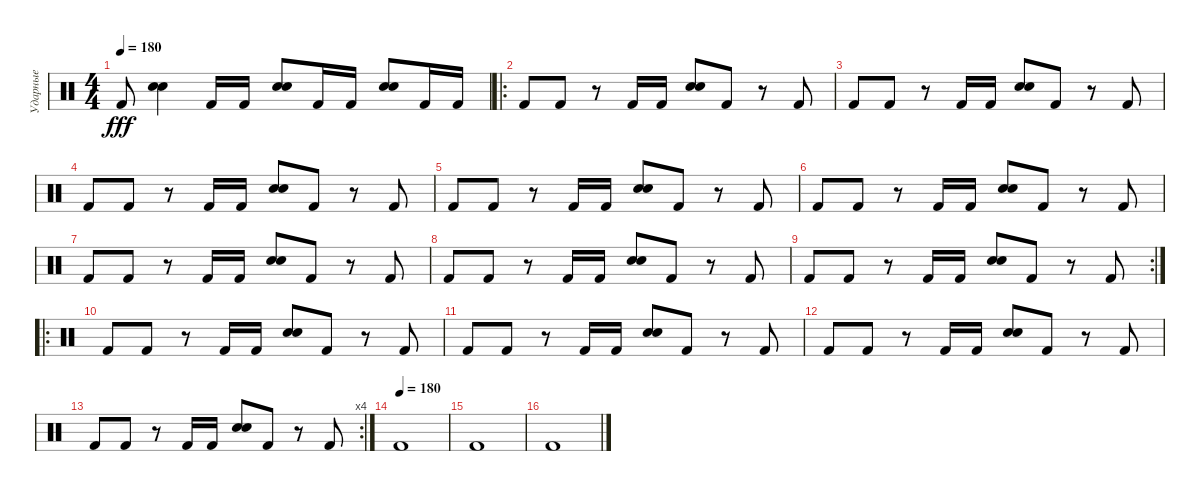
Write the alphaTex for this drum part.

\track ("Ударные" "Ударные") {instrument percussion}
\staff {score}
\articulation defaults
\ts (4 4)
\tempo 180
\clef neutral
\ks c "Kick (hit) 2".8{dy fff}
("Snare (hit) 2" "Electric Snare (hit)").4 "Kick (hit) 2".16 "Kick (hit) 2".16 ("Snare (hit) 2" "Electric Snare (hit)").8 "Kick (hit) 2".16 "Kick (hit) 2".16 ("Snare (hit) 2" "Electric Snare (hit)").8 "Kick (hit) 2".16 "Kick (hit) 2".16 |
\ro "Kick (hit) 2".8 "Kick (hit) 2".8
r.8 "Kick (hit) 2".16 "Kick (hit) 2".16 ("Snare (hit) 2" "Electric Snare (hit)").8 "Kick (hit) 2".8 r.8 "Kick (hit) 2".8 |
"Kick (hit) 2".8 "Kick (hit) 2".8 r.8 "Kick (hit) 2".16 "Kick (hit) 2".16 ("Snare (hit) 2" "Electric Snare (hit)").8 "Kick (hit) 2".8 r.8 "Kick (hit) 2".8 |
"Kick (hit) 2".8 "Kick (hit) 2".8 r.8 "Kick (hit) 2".16 "Kick (hit) 2".16 ("Snare (hit) 2" "Electric Snare (hit)").8 "Kick (hit) 2".8 r.8 "Kick (hit) 2".8 |
"Kick (hit) 2".8 "Kick (hit) 2".8 r.8 "Kick (hit) 2".16 "Kick (hit) 2".16 ("Snare (hit) 2" "Electric Snare (hit)").8 "Kick (hit) 2".8 r.8 "Kick (hit) 2".8 |
"Kick (hit) 2".8 "Kick (hit) 2".8 r.8 "Kick (hit) 2".16 "Kick (hit) 2".16 ("Snare (hit) 2" "Electric Snare (hit)").8 "Kick (hit) 2".8 r.8 "Kick (hit) 2".8 |
"Kick (hit) 2".8 "Kick (hit) 2".8 r.8 "Kick (hit) 2".16 "Kick (hit) 2".16 ("Snare (hit) 2" "Electric Snare (hit)").8 "Kick (hit) 2".8 r.8 "Kick (hit) 2".8 |
"Kick (hit) 2".8 "Kick (hit) 2".8 r.8 "Kick (hit) 2".16 "Kick (hit) 2".16 ("Snare (hit) 2" "Electric Snare (hit)").8 "Kick (hit) 2".8 r.8 "Kick (hit) 2".8 |
\rc 2 "Kick (hit) 2".8 "Kick (hit) 2".8
r.8 "Kick (hit) 2".16 "Kick (hit) 2".16 ("Snare (hit) 2" "Electric Snare (hit)").8 "Kick (hit) 2".8 r.8 "Kick (hit) 2".8 |
\ro "Kick (hit) 2".8 "Kick (hit) 2".8
r.8 "Kick (hit) 2".16 "Kick (hit) 2".16 ("Snare (hit) 2" "Electric Snare (hit)").8 "Kick (hit) 2".8 r.8 "Kick (hit) 2".8 |
"Kick (hit) 2".8 "Kick (hit) 2".8 r.8 "Kick (hit) 2".16 "Kick (hit) 2".16 ("Snare (hit) 2" "Electric Snare (hit)").8 "Kick (hit) 2".8 r.8 "Kick (hit) 2".8 |
"Kick (hit) 2".8 "Kick (hit) 2".8 r.8 "Kick (hit) 2".16 "Kick (hit) 2".16 ("Snare (hit) 2" "Electric Snare (hit)").8 "Kick (hit) 2".8 r.8 "Kick (hit) 2".8 |
\rc 4 "Kick (hit) 2".8 "Kick (hit) 2".8
r.8 "Kick (hit) 2".16 "Kick (hit) 2".16 ("Snare (hit) 2" "Electric Snare (hit)").8 "Kick (hit) 2".8 r.8 "Kick (hit) 2".8 |
\tempo (180)
"Kick (hit) 2".1 |
"Kick (hit) 2".1 |
"Kick (hit) 2".1
